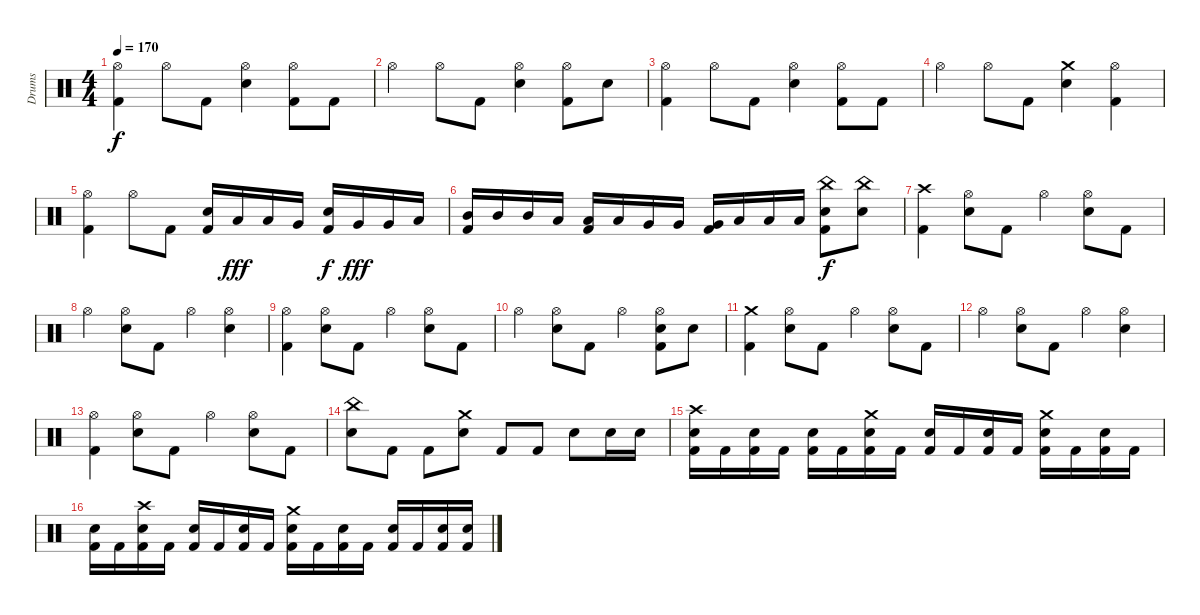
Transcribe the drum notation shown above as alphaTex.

\track ("Drums" "Drums") {instrument percussion}
\staff {score}
\articulation defaults
\ts (4 4)
\tempo 170
\clef neutral
\ks c
("Hi-Hat (open)" "Kick (hit) 2").4{dy f} "Hi-Hat (open)".8 "Kick (hit) 2".8 ("Hi-Hat (open)" "Electric Snare (hit)").4 ("Hi-Hat (open)" "Kick (hit) 2").8 "Kick (hit) 2".8 |
"Hi-Hat (open)".4 "Hi-Hat (open)".8 "Kick (hit) 2".8 ("Hi-Hat (open)" "Electric Snare (hit)").4 ("Hi-Hat (open)" "Kick (hit) 2").8 "Electric Snare (hit)".8 |
("Hi-Hat (open)" "Kick (hit) 2").4 "Hi-Hat (open)".8 "Kick (hit) 2".8 ("Hi-Hat (open)" "Electric Snare (hit)").4 ("Hi-Hat (open)" "Kick (hit) 2").8 "Kick (hit) 2".8 |
"Hi-Hat (open)".4 "Hi-Hat (open)".8 "Kick (hit) 2".8 ("Crash medium (hit)" "Electric Snare (hit)").4 ("Hi-Hat (open)" "Kick (hit) 2").4 |
("Hi-Hat (open)" "Kick (hit) 2").4 "Hi-Hat (open)".8 "Kick (hit) 2".8 ("Electric Snare (hit)" "Kick (hit) 2").16 "Low Tom (hit)".16{dy fff} "Low Tom (hit)".16 "Very Low Tom (hit)".16 ("Electric Snare (hit)" "Kick (hit) 2").16{dy f} "Very Low Tom (hit)".16{dy fff} "Very Low Tom (hit)".16 "Low Floor Tom (hit)".16 |
("Mid Tom (hit)" "Kick (hit) 2").16 "Mid Tom (hit)".16 "Mid Tom (hit)".16 "Low Tom (hit)".16 ("Low Tom (hit)" "Kick (hit) 2").16 "Low Tom (hit)".16 "Very Low Tom (hit)".16 "Very Low Tom (hit)".16 ("Very Low Tom (hit)" "Kick (hit) 2").16 "Low Floor Tom (hit)".16 "Low Floor Tom (hit)".16 "Low Floor Tom (hit)".16 ("China (hit)" "Electric Snare (hit)" "Kick (hit) 2").8{dy f} ("China (hit)" "Electric Snare (hit)").8 |
("Crash high (hit)" "Kick (hit) 2").4 ("Hi-Hat (open)" "Electric Snare (hit)").8 "Kick (hit) 2".8 "Hi-Hat (open)".4 ("Hi-Hat (open)" "Electric Snare (hit)").8 "Kick (hit) 2".8 |
"Hi-Hat (open)".4 ("Hi-Hat (open)" "Electric Snare (hit)").8 "Kick (hit) 2".8 "Hi-Hat (open)".4 ("Hi-Hat (open)" "Electric Snare (hit)").4 |
("Hi-Hat (open)" "Kick (hit) 2").4 ("Hi-Hat (open)" "Electric Snare (hit)").8 "Kick (hit) 2".8 "Hi-Hat (open)".4 ("Hi-Hat (open)" "Electric Snare (hit)").8 "Kick (hit) 2".8 |
"Hi-Hat (open)".4 ("Hi-Hat (open)" "Electric Snare (hit)").8 "Kick (hit) 2".8 "Hi-Hat (open)".4 ("Hi-Hat (open)" "Electric Snare (hit)" "Kick (hit) 2").8 "Electric Snare (hit)".8 |
("Crash medium (hit)" "Kick (hit) 2").4 ("Hi-Hat (open)" "Electric Snare (hit)").8 "Kick (hit) 2".8 "Hi-Hat (open)".4 ("Hi-Hat (open)" "Electric Snare (hit)").8 "Kick (hit) 2".8 |
"Hi-Hat (open)".4 ("Hi-Hat (open)" "Electric Snare (hit)").8 "Kick (hit) 2".8 "Hi-Hat (open)".4 ("Hi-Hat (open)" "Electric Snare (hit)").4 |
("Hi-Hat (open)" "Kick (hit) 2").4 ("Hi-Hat (open)" "Electric Snare (hit)").8 "Kick (hit) 2".8 "Hi-Hat (open)".4 ("Hi-Hat (open)" "Electric Snare (hit)").8 "Kick (hit) 2".8 |
("China (hit)" "Electric Snare (hit)").8 "Kick (hit) 2".8 "Kick (hit) 2".8 ("Crash medium (hit)" "Electric Snare (hit)").8 "Kick (hit) 2".8 "Kick (hit) 2".8 "Electric Snare (hit)".8 "Electric Snare (hit)".16 "Electric Snare (hit)".16 |
("Crash high (hit)" "Electric Snare (hit)" "Kick (hit) 2").16 "Kick (hit) 2".16 ("Electric Snare (hit)" "Kick (hit) 2").16 "Kick (hit) 2".16 ("Electric Snare (hit)" "Kick (hit) 2").16 "Kick (hit) 2".16 ("Crash medium (hit)" "Electric Snare (hit)" "Kick (hit) 2").16 "Kick (hit) 2".16 ("Electric Snare (hit)" "Kick (hit) 2").16 "Kick (hit) 2".16 ("Electric Snare (hit)" "Kick (hit) 2").16 "Kick (hit) 2".16 ("Crash medium (hit)" "Electric Snare (hit)" "Kick (hit) 2").16 "Kick (hit) 2".16 ("Electric Snare (hit)" "Kick (hit) 2").16 "Kick (hit) 2".16 |
("Electric Snare (hit)" "Kick (hit) 2").16 "Kick (hit) 2".16 ("Crash high (hit)" "Electric Snare (hit)" "Kick (hit) 2").16 "Kick (hit) 2".16 ("Electric Snare (hit)" "Kick (hit) 2").16 "Kick (hit) 2".16 ("Electric Snare (hit)" "Kick (hit) 2").16 "Kick (hit) 2".16 ("Crash medium (hit)" "Electric Snare (hit)" "Kick (hit) 2").16 "Kick (hit) 2".16 ("Electric Snare (hit)" "Kick (hit) 2").16 "Kick (hit) 2".16 ("Electric Snare (hit)" "Kick (hit) 2").16 "Kick (hit) 2".16 ("Electric Snare (hit)" "Kick (hit) 2").16 ("Electric Snare (hit)" "Kick (hit) 2").16
